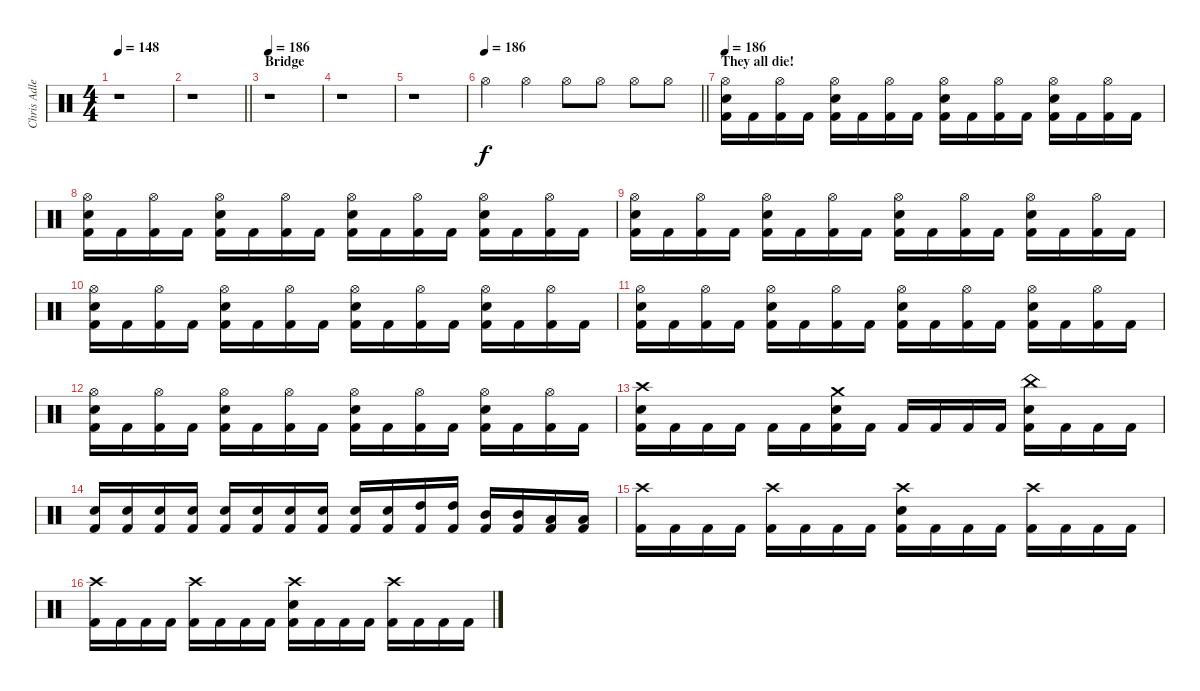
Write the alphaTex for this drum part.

\track ("Chris Adler (Drums)" "Chris Adle") {instrument percussion}
\staff {score}
\articulation defaults
\ts (4 4)
\tempo 148
\clef neutral
\ks c
r.1{dy f} |
\barLineRight lightlight
r.1 |
\section ("" "Bridge")
\tempo 186
r.1 |
r.1 |
r.1 |
\tempo 186
\barLineRight lightlight "Hi-Hat (open)".4 "Hi-Hat (open)".4 "Hi-Hat (open)".8 "Hi-Hat (open)".8 "Hi-Hat (open)".8 "Hi-Hat (open)".8
|
\section ("" "They all die!")
\tempo 186
("Hi-Hat (open)" "Snare (hit) 2" "Kick (hit) 2").16 "Kick (hit) 2".16 ("Hi-Hat (open)" "Kick (hit) 2").16 "Kick (hit) 2".16 ("Hi-Hat (open)" "Snare (hit) 2" "Kick (hit) 2").16 "Kick (hit) 2".16 ("Hi-Hat (open)" "Kick (hit) 2").16 "Kick (hit) 2".16 ("Hi-Hat (open)" "Snare (hit) 2" "Kick (hit) 2").16 "Kick (hit) 2".16 ("Hi-Hat (open)" "Kick (hit) 2").16 "Kick (hit) 2".16 ("Hi-Hat (open)" "Snare (hit) 2" "Kick (hit) 2").16 "Kick (hit) 2".16 ("Hi-Hat (open)" "Kick (hit) 2").16 "Kick (hit) 2".16 |
("Hi-Hat (open)" "Snare (hit) 2" "Kick (hit) 2").16 "Kick (hit) 2".16 ("Hi-Hat (open)" "Kick (hit) 2").16 "Kick (hit) 2".16 ("Hi-Hat (open)" "Snare (hit) 2" "Kick (hit) 2").16 "Kick (hit) 2".16 ("Hi-Hat (open)" "Kick (hit) 2").16 "Kick (hit) 2".16 ("Hi-Hat (open)" "Snare (hit) 2" "Kick (hit) 2").16 "Kick (hit) 2".16 ("Hi-Hat (open)" "Kick (hit) 2").16 "Kick (hit) 2".16 ("Hi-Hat (open)" "Snare (hit) 2" "Kick (hit) 2").16 "Kick (hit) 2".16 ("Hi-Hat (open)" "Kick (hit) 2").16 "Kick (hit) 2".16 |
("Hi-Hat (open)" "Snare (hit) 2" "Kick (hit) 2").16 "Kick (hit) 2".16 ("Hi-Hat (open)" "Kick (hit) 2").16 "Kick (hit) 2".16 ("Hi-Hat (open)" "Snare (hit) 2" "Kick (hit) 2").16 "Kick (hit) 2".16 ("Hi-Hat (open)" "Kick (hit) 2").16 "Kick (hit) 2".16 ("Hi-Hat (open)" "Snare (hit) 2" "Kick (hit) 2").16 "Kick (hit) 2".16 ("Hi-Hat (open)" "Kick (hit) 2").16 "Kick (hit) 2".16 ("Hi-Hat (open)" "Snare (hit) 2" "Kick (hit) 2").16 "Kick (hit) 2".16 ("Hi-Hat (open)" "Kick (hit) 2").16 "Kick (hit) 2".16 |
("Hi-Hat (open)" "Snare (hit) 2" "Kick (hit) 2").16 "Kick (hit) 2".16 ("Hi-Hat (open)" "Kick (hit) 2").16 "Kick (hit) 2".16 ("Hi-Hat (open)" "Snare (hit) 2" "Kick (hit) 2").16 "Kick (hit) 2".16 ("Hi-Hat (open)" "Kick (hit) 2").16 "Kick (hit) 2".16 ("Hi-Hat (open)" "Snare (hit) 2" "Kick (hit) 2").16 "Kick (hit) 2".16 ("Hi-Hat (open)" "Kick (hit) 2").16 "Kick (hit) 2".16 ("Hi-Hat (open)" "Snare (hit) 2" "Kick (hit) 2").16 "Kick (hit) 2".16 ("Hi-Hat (open)" "Kick (hit) 2").16 "Kick (hit) 2".16 |
("Hi-Hat (open)" "Snare (hit) 2" "Kick (hit) 2").16 "Kick (hit) 2".16 ("Hi-Hat (open)" "Kick (hit) 2").16 "Kick (hit) 2".16 ("Hi-Hat (open)" "Snare (hit) 2" "Kick (hit) 2").16 "Kick (hit) 2".16 ("Hi-Hat (open)" "Kick (hit) 2").16 "Kick (hit) 2".16 ("Hi-Hat (open)" "Snare (hit) 2" "Kick (hit) 2").16 "Kick (hit) 2".16 ("Hi-Hat (open)" "Kick (hit) 2").16 "Kick (hit) 2".16 ("Hi-Hat (open)" "Snare (hit) 2" "Kick (hit) 2").16 "Kick (hit) 2".16 ("Hi-Hat (open)" "Kick (hit) 2").16 "Kick (hit) 2".16 |
("Hi-Hat (open)" "Snare (hit) 2" "Kick (hit) 2").16 "Kick (hit) 2".16 ("Hi-Hat (open)" "Kick (hit) 2").16 "Kick (hit) 2".16 ("Hi-Hat (open)" "Snare (hit) 2" "Kick (hit) 2").16 "Kick (hit) 2".16 ("Hi-Hat (open)" "Kick (hit) 2").16 "Kick (hit) 2".16 ("Hi-Hat (open)" "Snare (hit) 2" "Kick (hit) 2").16 "Kick (hit) 2".16 ("Hi-Hat (open)" "Kick (hit) 2").16 "Kick (hit) 2".16 ("Hi-Hat (open)" "Snare (hit) 2" "Kick (hit) 2").16 "Kick (hit) 2".16 ("Hi-Hat (open)" "Kick (hit) 2").16 "Kick (hit) 2".16 |
("Crash high (hit)" "Snare (hit) 2" "Kick (hit) 2").16 "Kick (hit) 2".16 "Kick (hit) 2".16 "Kick (hit) 2".16 "Kick (hit) 2".16 "Kick (hit) 2".16 ("Crash medium (hit)" "Snare (hit) 2" "Kick (hit) 2").16 "Kick (hit) 2".16 "Kick (hit) 2".16 "Kick (hit) 2".16 "Kick (hit) 2".16 "Kick (hit) 2".16 ("China (hit)" "Snare (hit) 2" "Kick (hit) 2").16 "Kick (hit) 2".16 "Kick (hit) 2".16 "Kick (hit) 2".16 |
("Snare (hit) 2" "Kick (hit) 2").16 ("Snare (hit) 2" "Kick (hit) 2").16 ("Snare (hit) 2" "Kick (hit) 2").16 ("Snare (hit) 2" "Kick (hit) 2").16 ("Snare (hit) 2" "Kick (hit) 2").16 ("Snare (hit) 2" "Kick (hit) 2").16 ("Snare (hit) 2" "Kick (hit) 2").16 ("Snare (hit) 2" "Kick (hit) 2").16 ("Snare (hit) 2" "Kick (hit) 2").16 ("Snare (hit) 2" "Kick (hit) 2").16 ("High Tom (hit)" "Kick (hit) 2").16 ("High Tom (hit)" "Kick (hit) 2").16 ("Mid Tom (hit)" "Kick (hit) 2").16 ("Mid Tom (hit)" "Kick (hit) 2").16 ("Low Tom (hit)" "Kick (hit) 2").16 ("Low Tom (hit)" "Kick (hit) 2").16 |
("Crash high (hit)" "Kick (hit) 2").16 "Kick (hit) 2".16 "Kick (hit) 2".16 "Kick (hit) 2".16 ("Crash high (hit)" "Kick (hit) 2").16 "Kick (hit) 2".16 "Kick (hit) 2".16 "Kick (hit) 2".16 ("Crash high (hit)" "Snare (hit) 2" "Kick (hit) 2").16 "Kick (hit) 2".16 "Kick (hit) 2".16 "Kick (hit) 2".16 ("Crash high (hit)" "Kick (hit) 2").16 "Kick (hit) 2".16 "Kick (hit) 2".16 "Kick (hit) 2".16 |
("Crash high (hit)" "Kick (hit) 2").16 "Kick (hit) 2".16 "Kick (hit) 2".16 "Kick (hit) 2".16 ("Crash high (hit)" "Kick (hit) 2").16 "Kick (hit) 2".16 "Kick (hit) 2".16 "Kick (hit) 2".16 ("Crash high (hit)" "Snare (hit) 2" "Kick (hit) 2").16 "Kick (hit) 2".16 "Kick (hit) 2".16 "Kick (hit) 2".16 ("Crash high (hit)" "Kick (hit) 2").16 "Kick (hit) 2".16 "Kick (hit) 2".16 "Kick (hit) 2".16
